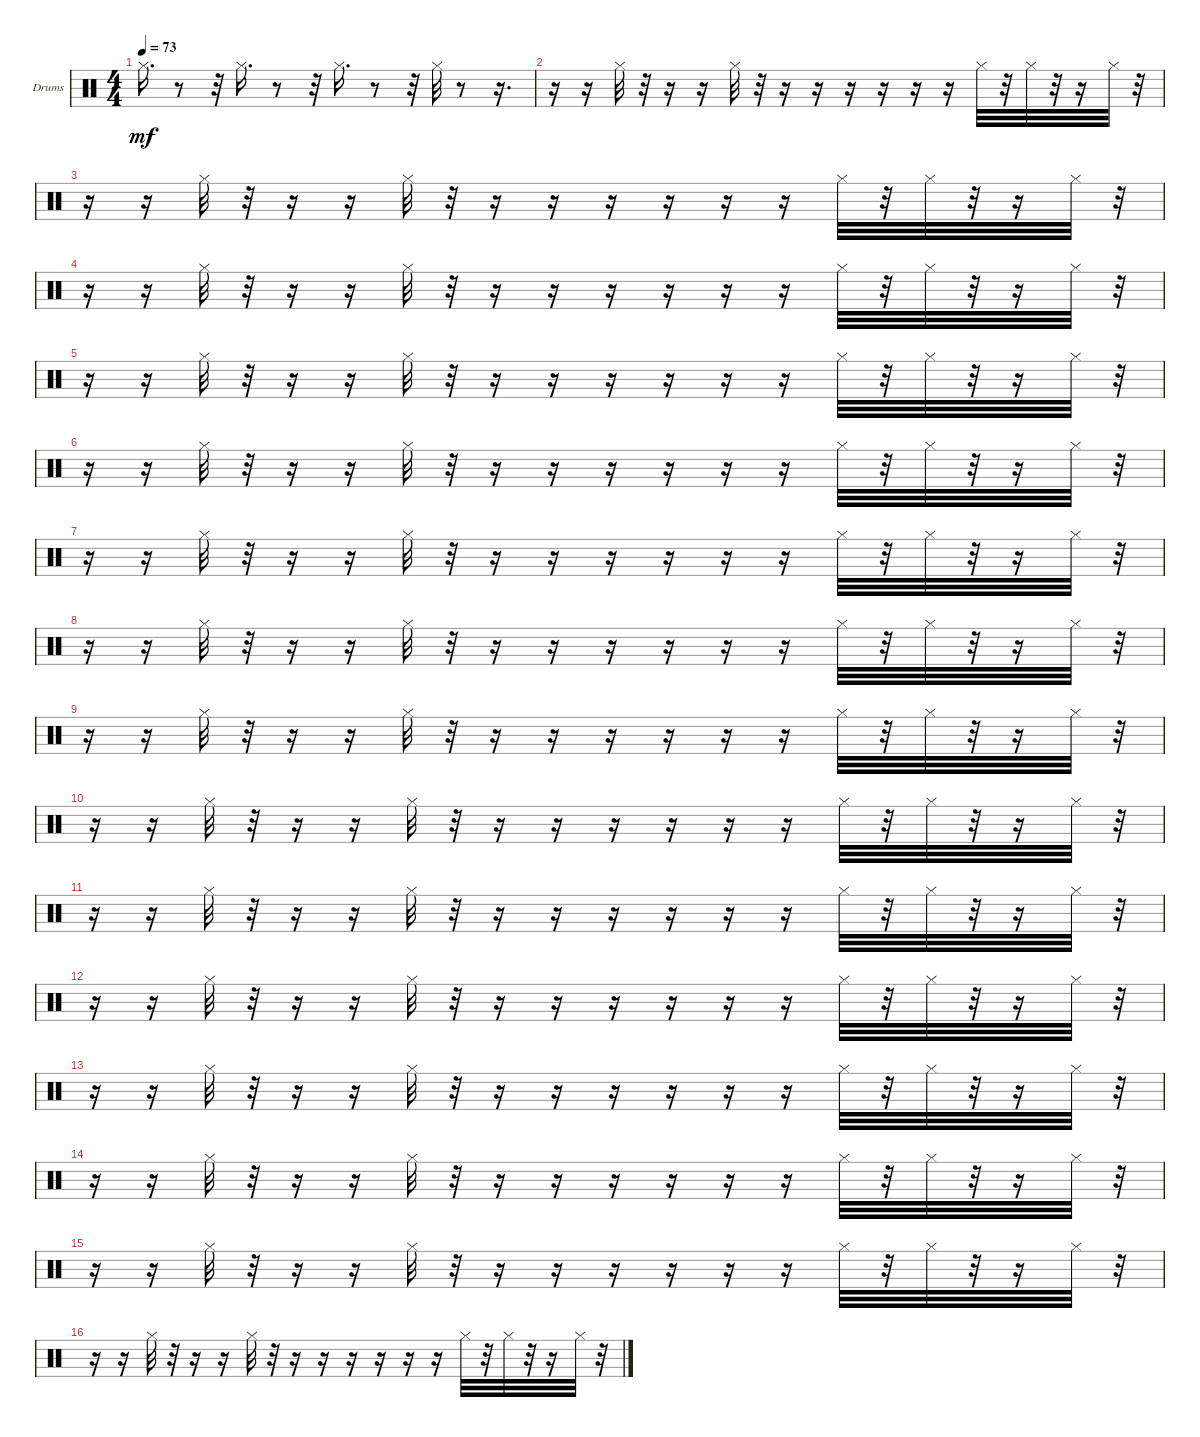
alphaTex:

\bracketExtendMode groupsimilarinstruments
\firstSystemTrackNameOrientation horizontal
\otherSystemsTrackNameOrientation horizontal
\track ("hi hat" "Drums") {instrument percussion}
\staff {score}
\articulation defaults
\ts (4 4)
\tempo 73
\clef neutral
\ks c "Hi-Hat (closed)".16{d dy mf}
r.8 r.32 "Hi-Hat (closed)".16{d} r.8 r.32 "Hi-Hat (closed)".16{d} r.8 r.32 "Hi-Hat (closed)".32 r.8 r.16{d} |
r.16 r.16 "Hi-Hat (closed)".32 r.32 r.16 r.16 "Hi-Hat (closed)".32 r.32 r.16 r.16 r.16 r.16 r.16 r.16 "Hi-Hat (closed)".32 r.32 "Hi-Hat (closed)".32 r.32 r.16 "Hi-Hat (closed)".32 r.32 |
r.16 r.16 "Hi-Hat (closed)".32 r.32 r.16 r.16 "Hi-Hat (closed)".32 r.32 r.16 r.16 r.16 r.16 r.16 r.16 "Hi-Hat (closed)".32 r.32 "Hi-Hat (closed)".32 r.32 r.16 "Hi-Hat (closed)".32 r.32 |
r.16 r.16 "Hi-Hat (closed)".32 r.32 r.16 r.16 "Hi-Hat (closed)".32 r.32 r.16 r.16 r.16 r.16 r.16 r.16 "Hi-Hat (closed)".32 r.32 "Hi-Hat (closed)".32 r.32 r.16 "Hi-Hat (closed)".32 r.32 |
r.16 r.16 "Hi-Hat (closed)".32 r.32 r.16 r.16 "Hi-Hat (closed)".32 r.32 r.16 r.16 r.16 r.16 r.16 r.16 "Hi-Hat (closed)".32 r.32 "Hi-Hat (closed)".32 r.32 r.16 "Hi-Hat (closed)".32 r.32 |
r.16 r.16 "Hi-Hat (closed)".32 r.32 r.16 r.16 "Hi-Hat (closed)".32 r.32 r.16 r.16 r.16 r.16 r.16 r.16 "Hi-Hat (closed)".32 r.32 "Hi-Hat (closed)".32 r.32 r.16 "Hi-Hat (closed)".32 r.32 |
r.16 r.16 "Hi-Hat (closed)".32 r.32 r.16 r.16 "Hi-Hat (closed)".32 r.32 r.16 r.16 r.16 r.16 r.16 r.16 "Hi-Hat (closed)".32 r.32 "Hi-Hat (closed)".32 r.32 r.16 "Hi-Hat (closed)".32 r.32 |
r.16 r.16 "Hi-Hat (closed)".32 r.32 r.16 r.16 "Hi-Hat (closed)".32 r.32 r.16 r.16 r.16 r.16 r.16 r.16 "Hi-Hat (closed)".32 r.32 "Hi-Hat (closed)".32 r.32 r.16 "Hi-Hat (closed)".32 r.32 |
r.16 r.16 "Hi-Hat (closed)".32 r.32 r.16 r.16 "Hi-Hat (closed)".32 r.32 r.16 r.16 r.16 r.16 r.16 r.16 "Hi-Hat (closed)".32 r.32 "Hi-Hat (closed)".32 r.32 r.16 "Hi-Hat (closed)".32 r.32 |
r.16 r.16 "Hi-Hat (closed)".32 r.32 r.16 r.16 "Hi-Hat (closed)".32 r.32 r.16 r.16 r.16 r.16 r.16 r.16 "Hi-Hat (closed)".32 r.32 "Hi-Hat (closed)".32 r.32 r.16 "Hi-Hat (closed)".32 r.32 |
r.16 r.16 "Hi-Hat (closed)".32 r.32 r.16 r.16 "Hi-Hat (closed)".32 r.32 r.16 r.16 r.16 r.16 r.16 r.16 "Hi-Hat (closed)".32 r.32 "Hi-Hat (closed)".32 r.32 r.16 "Hi-Hat (closed)".32 r.32 |
r.16 r.16 "Hi-Hat (closed)".32 r.32 r.16 r.16 "Hi-Hat (closed)".32 r.32 r.16 r.16 r.16 r.16 r.16 r.16 "Hi-Hat (closed)".32 r.32 "Hi-Hat (closed)".32 r.32 r.16 "Hi-Hat (closed)".32 r.32 |
r.16 r.16 "Hi-Hat (closed)".32 r.32 r.16 r.16 "Hi-Hat (closed)".32 r.32 r.16 r.16 r.16 r.16 r.16 r.16 "Hi-Hat (closed)".32 r.32 "Hi-Hat (closed)".32 r.32 r.16 "Hi-Hat (closed)".32 r.32 |
r.16 r.16 "Hi-Hat (closed)".32 r.32 r.16 r.16 "Hi-Hat (closed)".32 r.32 r.16 r.16 r.16 r.16 r.16 r.16 "Hi-Hat (closed)".32 r.32 "Hi-Hat (closed)".32 r.32 r.16 "Hi-Hat (closed)".32 r.32 |
r.16 r.16 "Hi-Hat (closed)".32 r.32 r.16 r.16 "Hi-Hat (closed)".32 r.32 r.16 r.16 r.16 r.16 r.16 r.16 "Hi-Hat (closed)".32 r.32 "Hi-Hat (closed)".32 r.32 r.16 "Hi-Hat (closed)".32 r.32 |
r.16 r.16 "Hi-Hat (closed)".32 r.32 r.16 r.16 "Hi-Hat (closed)".32 r.32 r.16 r.16 r.16 r.16 r.16 r.16 "Hi-Hat (closed)".32 r.32 "Hi-Hat (closed)".32 r.32 r.16 "Hi-Hat (closed)".32 r.32
